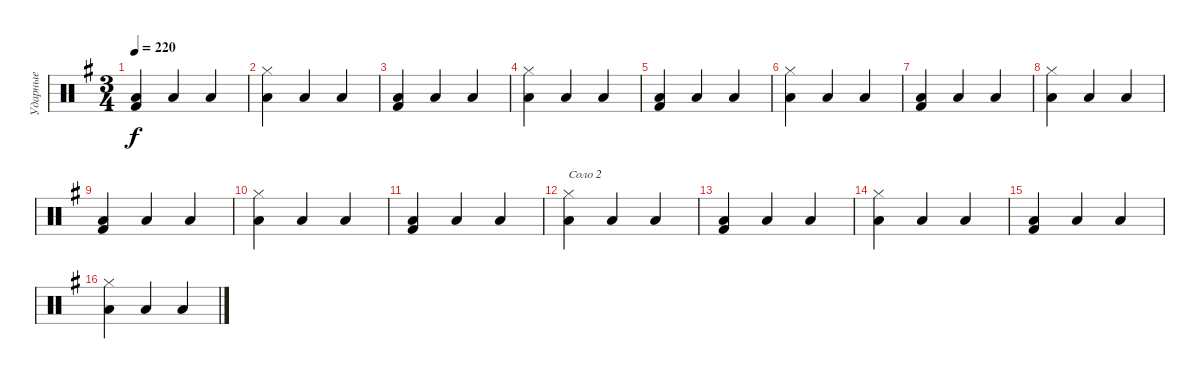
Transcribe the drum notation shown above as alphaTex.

\track ("Ударные" "Ударные") {instrument percussion}
\staff {score}
\articulation defaults
\ts (3 4)
\tempo 220
\clef neutral
\ks eminor
("Kick (hit) 2" "Low Tom (hit)").4{dy f} "Low Tom (hit)".4 "Low Tom (hit)".4 |
("Hi-Hat (closed)" "Low Tom (hit)").4 "Low Tom (hit)".4 "Low Tom (hit)".4 |
("Kick (hit) 2" "Low Tom (hit)").4 "Low Tom (hit)".4 "Low Tom (hit)".4 |
("Hi-Hat (closed)" "Low Tom (hit)").4 "Low Tom (hit)".4 "Low Tom (hit)".4 |
("Kick (hit) 2" "Low Tom (hit)").4 "Low Tom (hit)".4 "Low Tom (hit)".4 |
("Hi-Hat (closed)" "Low Tom (hit)").4 "Low Tom (hit)".4 "Low Tom (hit)".4 |
("Kick (hit) 2" "Low Tom (hit)").4 "Low Tom (hit)".4 "Low Tom (hit)".4 |
("Hi-Hat (closed)" "Low Tom (hit)").4 "Low Tom (hit)".4 "Low Tom (hit)".4 |
("Kick (hit) 2" "Low Tom (hit)").4 "Low Tom (hit)".4 "Low Tom (hit)".4 |
("Hi-Hat (closed)" "Low Tom (hit)").4 "Low Tom (hit)".4 "Low Tom (hit)".4 |
("Kick (hit) 2" "Low Tom (hit)").4 "Low Tom (hit)".4 "Low Tom (hit)".4 |
("Hi-Hat (closed)" "Low Tom (hit)").4{txt "Соло 2"} "Low Tom (hit)".4 "Low Tom (hit)".4 |
("Kick (hit) 2" "Low Tom (hit)").4 "Low Tom (hit)".4 "Low Tom (hit)".4 |
("Hi-Hat (closed)" "Low Tom (hit)").4 "Low Tom (hit)".4 "Low Tom (hit)".4 |
("Kick (hit) 2" "Low Tom (hit)").4 "Low Tom (hit)".4 "Low Tom (hit)".4 |
("Hi-Hat (closed)" "Low Tom (hit)").4 "Low Tom (hit)".4 "Low Tom (hit)".4
